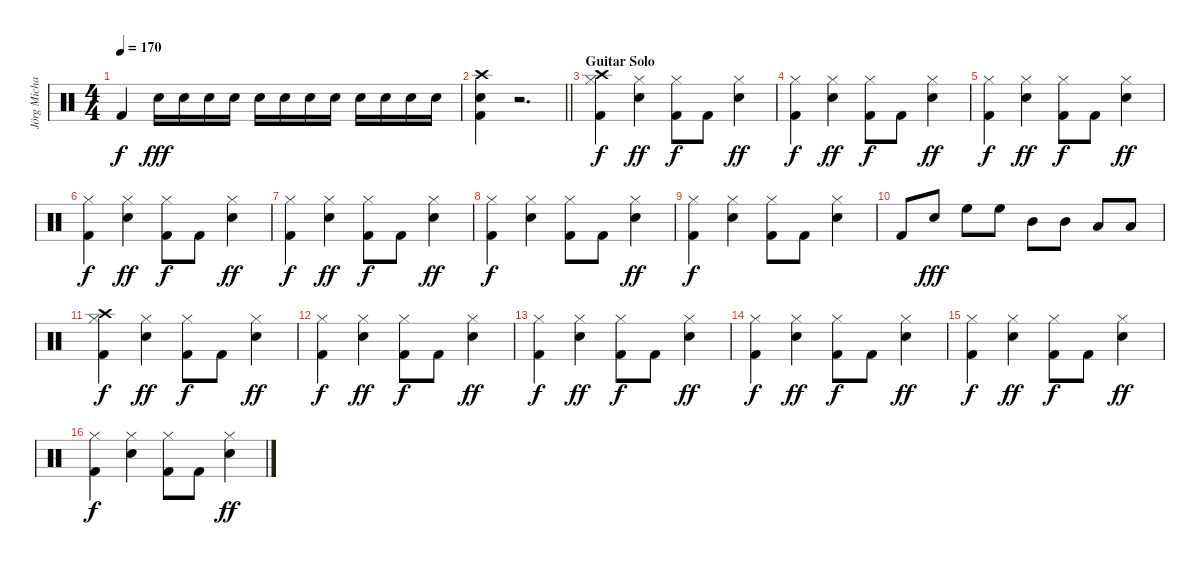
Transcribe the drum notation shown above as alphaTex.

\track ("Jörg Michael" "Jörg Micha") {instrument percussion}
\staff {score}
\articulation defaults
\ts (4 4)
\tempo 170
\clef neutral
\ks c "Kick (hit) 2".4{dy f} "Electric Snare (hit)".16{dy fff} "Electric Snare (hit)".16 "Electric Snare (hit)".16 "Electric Snare (hit)".16 "Electric Snare (hit)".16 "Electric Snare (hit)".16 "Electric Snare (hit)".16 "Electric Snare (hit)".16 "Electric Snare (hit)".16 "Electric Snare (hit)".16 "Electric Snare (hit)".16 "Electric Snare (hit)".16
|
\barLineRight lightlight
("Kick (hit) 2" "Electric Snare (hit)" "Crash high (hit)").4 r.2{d} |
\section ("" "Guitar Solo")
("Kick (hit) 2" "Hi-Hat (closed)" "Crash high (hit)").4{dy f} ("Electric Snare (hit)" "Hi-Hat (closed)").4{dy ff} ("Kick (hit) 2" "Hi-Hat (closed)").8{dy f} "Kick (hit) 2".8 ("Electric Snare (hit)" "Hi-Hat (closed)").4{dy ff} |
("Kick (hit) 2" "Hi-Hat (closed)").4{dy f} ("Electric Snare (hit)" "Hi-Hat (closed)").4{dy ff} ("Kick (hit) 2" "Hi-Hat (closed)").8{dy f} "Kick (hit) 2".8 ("Electric Snare (hit)" "Hi-Hat (closed)").4{dy ff} |
("Kick (hit) 2" "Hi-Hat (closed)").4{dy f} ("Electric Snare (hit)" "Hi-Hat (closed)").4{dy ff} ("Kick (hit) 2" "Hi-Hat (closed)").8{dy f} "Kick (hit) 2".8 ("Electric Snare (hit)" "Hi-Hat (closed)").4{dy ff} |
("Kick (hit) 2" "Hi-Hat (closed)").4{dy f} ("Electric Snare (hit)" "Hi-Hat (closed)").4{dy ff} ("Kick (hit) 2" "Hi-Hat (closed)").8{dy f} "Kick (hit) 2".8 ("Electric Snare (hit)" "Hi-Hat (closed)").4{dy ff} |
("Kick (hit) 2" "Hi-Hat (closed)").4{dy f} ("Electric Snare (hit)" "Hi-Hat (closed)").4{dy ff} ("Kick (hit) 2" "Hi-Hat (closed)").8{dy f} "Kick (hit) 2".8 ("Electric Snare (hit)" "Hi-Hat (closed)").4{dy ff} |
("Kick (hit) 2" "Hi-Hat (closed)").4{dy f} ("Electric Snare (hit)" "Hi-Hat (closed)").4 ("Kick (hit) 2" "Hi-Hat (closed)").8 "Kick (hit) 2".8 ("Electric Snare (hit)" "Hi-Hat (closed)").4{dy ff} |
("Kick (hit) 2" "Hi-Hat (closed)").4{dy f} ("Electric Snare (hit)" "Hi-Hat (closed)").4 ("Kick (hit) 2" "Hi-Hat (closed)").8 "Kick (hit) 2".8 ("Electric Snare (hit)" "Hi-Hat (closed)").4 |
"Kick (hit) 2".8 "Electric Snare (hit)".8{dy fff} "High Floor Tom (hit)".8 "High Floor Tom (hit)".8 "Mid Tom (hit)".8 "Mid Tom (hit)".8 "Low Tom (hit)".8 "Low Tom (hit)".8 |
("Kick (hit) 2" "Hi-Hat (closed)" "Crash high (hit)").4{dy f} ("Electric Snare (hit)" "Hi-Hat (closed)").4{dy ff} ("Kick (hit) 2" "Hi-Hat (closed)").8{dy f} "Kick (hit) 2".8 ("Electric Snare (hit)" "Hi-Hat (closed)").4{dy ff} |
("Kick (hit) 2" "Hi-Hat (closed)").4{dy f} ("Electric Snare (hit)" "Hi-Hat (closed)").4{dy ff} ("Kick (hit) 2" "Hi-Hat (closed)").8{dy f} "Kick (hit) 2".8 ("Electric Snare (hit)" "Hi-Hat (closed)").4{dy ff} |
("Kick (hit) 2" "Hi-Hat (closed)").4{dy f} ("Electric Snare (hit)" "Hi-Hat (closed)").4{dy ff} ("Kick (hit) 2" "Hi-Hat (closed)").8{dy f} "Kick (hit) 2".8 ("Electric Snare (hit)" "Hi-Hat (closed)").4{dy ff} |
("Kick (hit) 2" "Hi-Hat (closed)").4{dy f} ("Electric Snare (hit)" "Hi-Hat (closed)").4{dy ff} ("Kick (hit) 2" "Hi-Hat (closed)").8{dy f} "Kick (hit) 2".8 ("Electric Snare (hit)" "Hi-Hat (closed)").4{dy ff} |
("Kick (hit) 2" "Hi-Hat (closed)").4{dy f} ("Electric Snare (hit)" "Hi-Hat (closed)").4{dy ff} ("Kick (hit) 2" "Hi-Hat (closed)").8{dy f} "Kick (hit) 2".8 ("Electric Snare (hit)" "Hi-Hat (closed)").4{dy ff} |
("Kick (hit) 2" "Hi-Hat (closed)").4{dy f} ("Electric Snare (hit)" "Hi-Hat (closed)").4 ("Kick (hit) 2" "Hi-Hat (closed)").8 "Kick (hit) 2".8 ("Electric Snare (hit)" "Hi-Hat (closed)").4{dy ff}
